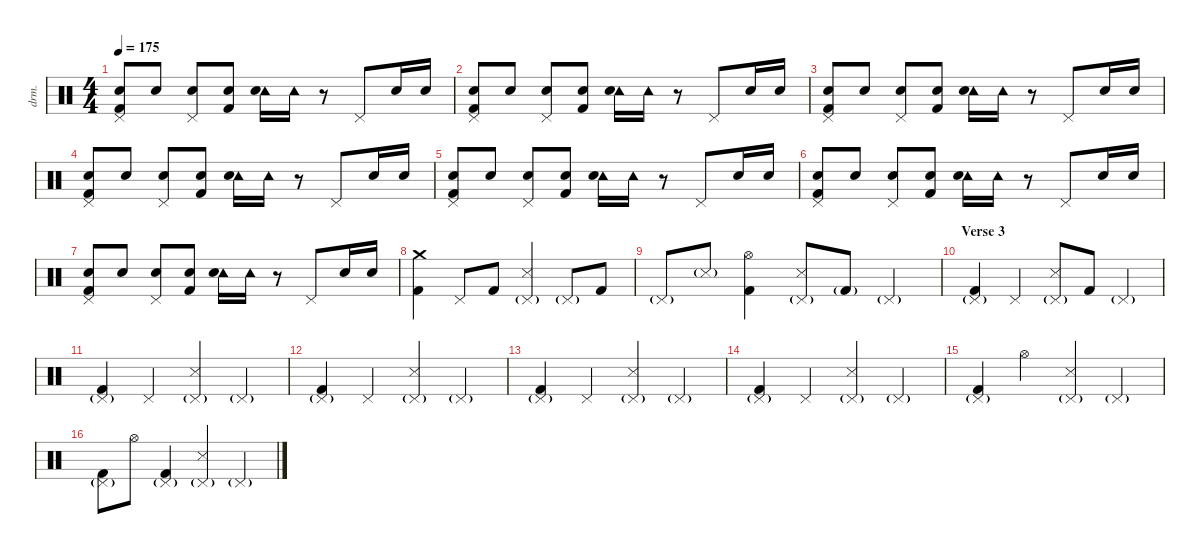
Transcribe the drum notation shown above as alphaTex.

\defaultSystemsLayout 4
\hideDynamics
\bracketExtendMode nobrackets
\otherSystemsTrackNameOrientation horizontal
\track ("Percussion" "drm.") {instrument percussion}
\staff {score}
\articulation defaults
\ts (4 4)
\tempo 175
\clef neutral
\ks c
("Pedal Hi-Hat (hit)" "Snare (hit) 2" "Kick (hit) 2").8{dy f} "Snare (hit) 2".8{dy p} ("Pedal Hi-Hat (hit)" "Snare (hit) 2").8{dy f} ("Snare (hit) 2" "Kick (hit) 2").8{dy p} ("Tambourine (hit)" "Snare (hit) 2").16{dy ff} "Tambourine (hit)".16{dy mp} r.8 "Pedal Hi-Hat (hit)".8{dy f} "Snare (hit) 2".16{dy p} "Snare (hit) 2".16 |
("Pedal Hi-Hat (hit)" "Snare (hit) 2" "Kick (hit) 2").8{dy f} "Snare (hit) 2".8{dy p} ("Pedal Hi-Hat (hit)" "Snare (hit) 2").8{dy f} ("Snare (hit) 2" "Kick (hit) 2").8{dy p} ("Tambourine (hit)" "Snare (hit) 2").16{dy ff} "Tambourine (hit)".16{dy mp} r.8 "Pedal Hi-Hat (hit)".8{dy f} "Snare (hit) 2".16{dy p} "Snare (hit) 2".16 |
("Pedal Hi-Hat (hit)" "Snare (hit) 2" "Kick (hit) 2").8{dy f} "Snare (hit) 2".8{dy p} ("Pedal Hi-Hat (hit)" "Snare (hit) 2").8{dy f} ("Snare (hit) 2" "Kick (hit) 2").8{dy p} ("Tambourine (hit)" "Snare (hit) 2").16{dy ff} "Tambourine (hit)".16{dy mp} r.8 "Pedal Hi-Hat (hit)".8{dy f} "Snare (hit) 2".16{dy p} "Snare (hit) 2".16 |
("Pedal Hi-Hat (hit)" "Snare (hit) 2" "Kick (hit) 2").8{dy f} "Snare (hit) 2".8{dy p} ("Pedal Hi-Hat (hit)" "Snare (hit) 2").8{dy f} ("Snare (hit) 2" "Kick (hit) 2").8{dy p} ("Tambourine (hit)" "Snare (hit) 2").16{dy ff} "Tambourine (hit)".16{dy mp} r.8 "Pedal Hi-Hat (hit)".8{dy f} "Snare (hit) 2".16{dy p} "Snare (hit) 2".16 |
("Pedal Hi-Hat (hit)" "Snare (hit) 2" "Kick (hit) 2").8{dy f} "Snare (hit) 2".8{dy p} ("Pedal Hi-Hat (hit)" "Snare (hit) 2").8{dy f} ("Snare (hit) 2" "Kick (hit) 2").8{dy p} ("Tambourine (hit)" "Snare (hit) 2").16{dy ff} "Tambourine (hit)".16{dy mp} r.8 "Pedal Hi-Hat (hit)".8{dy f} "Snare (hit) 2".16{dy p} "Snare (hit) 2".16 |
("Pedal Hi-Hat (hit)" "Snare (hit) 2" "Kick (hit) 2").8{dy f} "Snare (hit) 2".8{dy p} ("Pedal Hi-Hat (hit)" "Snare (hit) 2").8{dy f} ("Snare (hit) 2" "Kick (hit) 2").8{dy p} ("Tambourine (hit)" "Snare (hit) 2").16{dy ff} "Tambourine (hit)".16{dy mp} r.8 "Pedal Hi-Hat (hit)".8{dy f} "Snare (hit) 2".16{dy p} "Snare (hit) 2".16 |
("Pedal Hi-Hat (hit)" "Snare (hit) 2" "Kick (hit) 2").8{dy f} "Snare (hit) 2".8{dy p} ("Pedal Hi-Hat (hit)" "Snare (hit) 2").8{dy f} ("Snare (hit) 2" "Kick (hit) 2").8{dy p} ("Tambourine (hit)" "Snare (hit) 2").16{dy ff} "Tambourine (hit)".16{dy mp} r.8 "Pedal Hi-Hat (hit)".8{dy f} "Snare (hit) 2".16{dy p} "Snare (hit) 2".16 |
("Crash medium (hit)" "Kick (hit) 2").4{dy f} "Pedal Hi-Hat (hit)".8 "Kick (hit) 2".8 ("Pedal Hi-Hat (hit)"{g} "Snare (side stick) 3").4 "Pedal Hi-Hat (hit)"{g}.8 "Kick (hit) 2".8 |
"Pedal Hi-Hat (hit)"{g}.8 "Snare (side stick) 3"{g}.8 ("Hi-Hat (open)" "Kick (hit) 2").4{dy mp} ("Pedal Hi-Hat (hit)"{g} "Snare (side stick) 3").8{dy f} "Kick (hit) 2"{g}.8 "Pedal Hi-Hat (hit)"{g}.4 |
\section ("" "Verse 3")
("Pedal Hi-Hat (hit)"{g} "Kick (hit) 2").4 "Pedal Hi-Hat (hit)".4 ("Pedal Hi-Hat (hit)"{g} "Snare (side stick) 3").8 "Kick (hit) 2".8 "Pedal Hi-Hat (hit)"{g}.4 |
("Pedal Hi-Hat (hit)"{g} "Kick (hit) 2").4 "Pedal Hi-Hat (hit)".4 ("Pedal Hi-Hat (hit)"{g} "Snare (side stick) 3").4 "Pedal Hi-Hat (hit)"{g}.4 |
("Pedal Hi-Hat (hit)"{g} "Kick (hit) 2").4 "Pedal Hi-Hat (hit)".4 ("Pedal Hi-Hat (hit)"{g} "Snare (side stick) 3").4 "Pedal Hi-Hat (hit)"{g}.4 |
("Pedal Hi-Hat (hit)"{g} "Kick (hit) 2").4 "Pedal Hi-Hat (hit)".4 ("Pedal Hi-Hat (hit)"{g} "Snare (side stick) 3").4 "Pedal Hi-Hat (hit)"{g}.4 |
("Pedal Hi-Hat (hit)"{g} "Kick (hit) 2").4 "Pedal Hi-Hat (hit)".4 ("Pedal Hi-Hat (hit)"{g} "Snare (side stick) 3").4 "Pedal Hi-Hat (hit)"{g}.4 |
("Pedal Hi-Hat (hit)"{g} "Kick (hit) 2").4 "Hi-Hat (open)".4 ("Pedal Hi-Hat (hit)"{g} "Snare (side stick) 3").4 "Pedal Hi-Hat (hit)"{g}.4 |
("Pedal Hi-Hat (hit)"{g} "Kick (hit) 2").8 "Hi-Hat (open)".8 ("Pedal Hi-Hat (hit)"{g} "Kick (hit) 2").4 ("Pedal Hi-Hat (hit)"{g} "Snare (side stick) 3").4 "Pedal Hi-Hat (hit)"{g}.4
